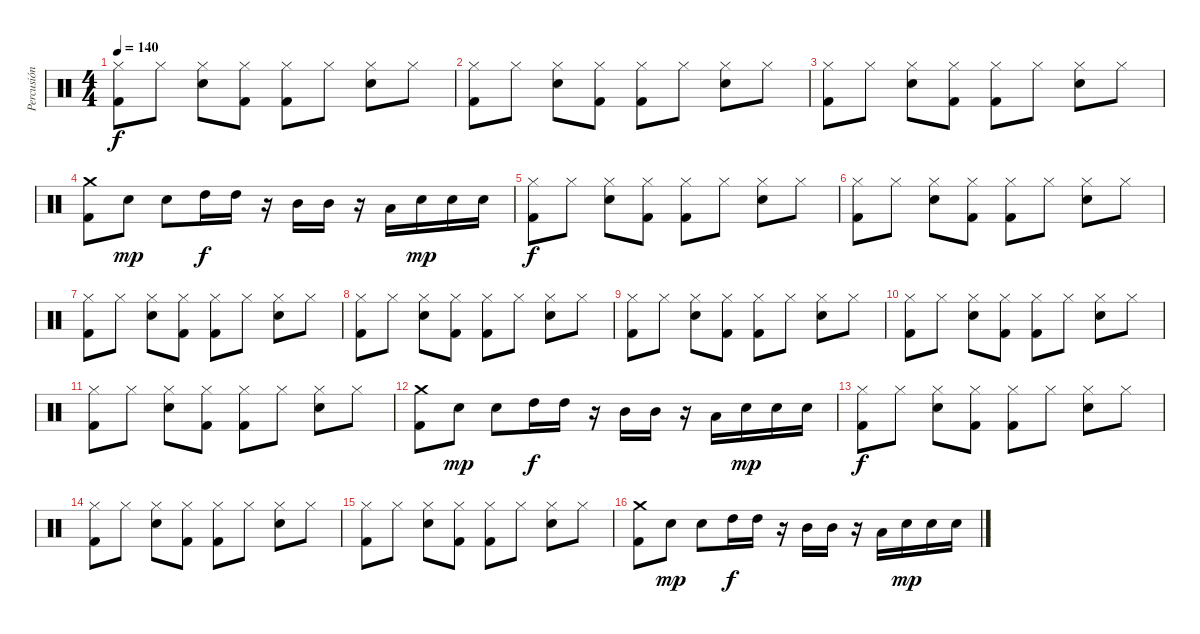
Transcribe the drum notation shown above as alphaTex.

\track ("Percusión" "Percusión") {instrument percussion}
\staff {score}
\articulation defaults
\ts (4 4)
\tempo 140
\clef neutral
\ks c
("Hi-Hat (closed)" "Kick (hit) 2").8{dy f} "Hi-Hat (closed)".8 ("Hi-Hat (closed)" "Snare (hit) 2").8 ("Hi-Hat (closed)" "Kick (hit) 2").8 ("Hi-Hat (closed)" "Kick (hit) 2").8 "Hi-Hat (closed)".8 ("Hi-Hat (closed)" "Snare (hit) 2").8 "Hi-Hat (closed)".8 |
("Hi-Hat (closed)" "Kick (hit) 2").8 "Hi-Hat (closed)".8 ("Hi-Hat (closed)" "Snare (hit) 2").8 ("Hi-Hat (closed)" "Kick (hit) 2").8 ("Hi-Hat (closed)" "Kick (hit) 2").8 "Hi-Hat (closed)".8 ("Hi-Hat (closed)" "Snare (hit) 2").8 "Hi-Hat (closed)".8 |
("Hi-Hat (closed)" "Kick (hit) 2").8 "Hi-Hat (closed)".8 ("Hi-Hat (closed)" "Snare (hit) 2").8 ("Hi-Hat (closed)" "Kick (hit) 2").8 ("Hi-Hat (closed)" "Kick (hit) 2").8 "Hi-Hat (closed)".8 ("Hi-Hat (closed)" "Snare (hit) 2").8 "Hi-Hat (closed)".8 |
("Crash medium (hit)" "Kick (hit) 2").8 "Snare (hit) 2".8{dy mp} "Snare (hit) 2".8 "High Tom (hit)".16{dy f} "High Tom (hit)".16 r.16 "Mid Tom (hit)".16 "Mid Tom (hit)".16 r.16 "Low Tom (hit)".16 "Snare (hit) 2".16{dy mp} "Snare (hit) 2".16 "Snare (hit) 2".16 |
("Hi-Hat (closed)" "Kick (hit) 2").8{dy f} "Hi-Hat (closed)".8 ("Hi-Hat (closed)" "Snare (hit) 2").8 ("Hi-Hat (closed)" "Kick (hit) 2").8 ("Hi-Hat (closed)" "Kick (hit) 2").8 "Hi-Hat (closed)".8 ("Hi-Hat (closed)" "Snare (hit) 2").8 "Hi-Hat (closed)".8 |
("Hi-Hat (closed)" "Kick (hit) 2").8 "Hi-Hat (closed)".8 ("Hi-Hat (closed)" "Snare (hit) 2").8 ("Hi-Hat (closed)" "Kick (hit) 2").8 ("Hi-Hat (closed)" "Kick (hit) 2").8 "Hi-Hat (closed)".8 ("Hi-Hat (closed)" "Snare (hit) 2").8 "Hi-Hat (closed)".8 |
("Hi-Hat (closed)" "Kick (hit) 2").8 "Hi-Hat (closed)".8 ("Hi-Hat (closed)" "Snare (hit) 2").8 ("Hi-Hat (closed)" "Kick (hit) 2").8 ("Hi-Hat (closed)" "Kick (hit) 2").8 "Hi-Hat (closed)".8 ("Hi-Hat (closed)" "Snare (hit) 2").8 "Hi-Hat (closed)".8 |
("Hi-Hat (closed)" "Kick (hit) 2").8 "Hi-Hat (closed)".8 ("Hi-Hat (closed)" "Snare (hit) 2").8 ("Hi-Hat (closed)" "Kick (hit) 2").8 ("Hi-Hat (closed)" "Kick (hit) 2").8 "Hi-Hat (closed)".8 ("Hi-Hat (closed)" "Snare (hit) 2").8 "Hi-Hat (closed)".8 |
("Hi-Hat (closed)" "Kick (hit) 2").8 "Hi-Hat (closed)".8 ("Hi-Hat (closed)" "Snare (hit) 2").8 ("Hi-Hat (closed)" "Kick (hit) 2").8 ("Hi-Hat (closed)" "Kick (hit) 2").8 "Hi-Hat (closed)".8 ("Hi-Hat (closed)" "Snare (hit) 2").8 "Hi-Hat (closed)".8 |
("Hi-Hat (closed)" "Kick (hit) 2").8 "Hi-Hat (closed)".8 ("Hi-Hat (closed)" "Snare (hit) 2").8 ("Hi-Hat (closed)" "Kick (hit) 2").8 ("Hi-Hat (closed)" "Kick (hit) 2").8 "Hi-Hat (closed)".8 ("Hi-Hat (closed)" "Snare (hit) 2").8 "Hi-Hat (closed)".8 |
("Hi-Hat (closed)" "Kick (hit) 2").8 "Hi-Hat (closed)".8 ("Hi-Hat (closed)" "Snare (hit) 2").8 ("Hi-Hat (closed)" "Kick (hit) 2").8 ("Hi-Hat (closed)" "Kick (hit) 2").8 "Hi-Hat (closed)".8 ("Hi-Hat (closed)" "Snare (hit) 2").8 "Hi-Hat (closed)".8 |
("Crash medium (hit)" "Kick (hit) 2").8 "Snare (hit) 2".8{dy mp} "Snare (hit) 2".8 "High Tom (hit)".16{dy f} "High Tom (hit)".16 r.16 "Mid Tom (hit)".16 "Mid Tom (hit)".16 r.16 "Low Tom (hit)".16 "Snare (hit) 2".16{dy mp} "Snare (hit) 2".16 "Snare (hit) 2".16 |
("Hi-Hat (closed)" "Kick (hit) 2").8{dy f} "Hi-Hat (closed)".8 ("Hi-Hat (closed)" "Snare (hit) 2").8 ("Hi-Hat (closed)" "Kick (hit) 2").8 ("Hi-Hat (closed)" "Kick (hit) 2").8 "Hi-Hat (closed)".8 ("Hi-Hat (closed)" "Snare (hit) 2").8 "Hi-Hat (closed)".8 |
("Hi-Hat (closed)" "Kick (hit) 2").8 "Hi-Hat (closed)".8 ("Hi-Hat (closed)" "Snare (hit) 2").8 ("Hi-Hat (closed)" "Kick (hit) 2").8 ("Hi-Hat (closed)" "Kick (hit) 2").8 "Hi-Hat (closed)".8 ("Hi-Hat (closed)" "Snare (hit) 2").8 "Hi-Hat (closed)".8 |
("Hi-Hat (closed)" "Kick (hit) 2").8 "Hi-Hat (closed)".8 ("Hi-Hat (closed)" "Snare (hit) 2").8 ("Hi-Hat (closed)" "Kick (hit) 2").8 ("Hi-Hat (closed)" "Kick (hit) 2").8 "Hi-Hat (closed)".8 ("Hi-Hat (closed)" "Snare (hit) 2").8 "Hi-Hat (closed)".8 |
("Crash medium (hit)" "Kick (hit) 2").8 "Snare (hit) 2".8{dy mp} "Snare (hit) 2".8 "High Tom (hit)".16{dy f} "High Tom (hit)".16 r.16 "Mid Tom (hit)".16 "Mid Tom (hit)".16 r.16 "Low Tom (hit)".16 "Snare (hit) 2".16{dy mp} "Snare (hit) 2".16 "Snare (hit) 2".16
